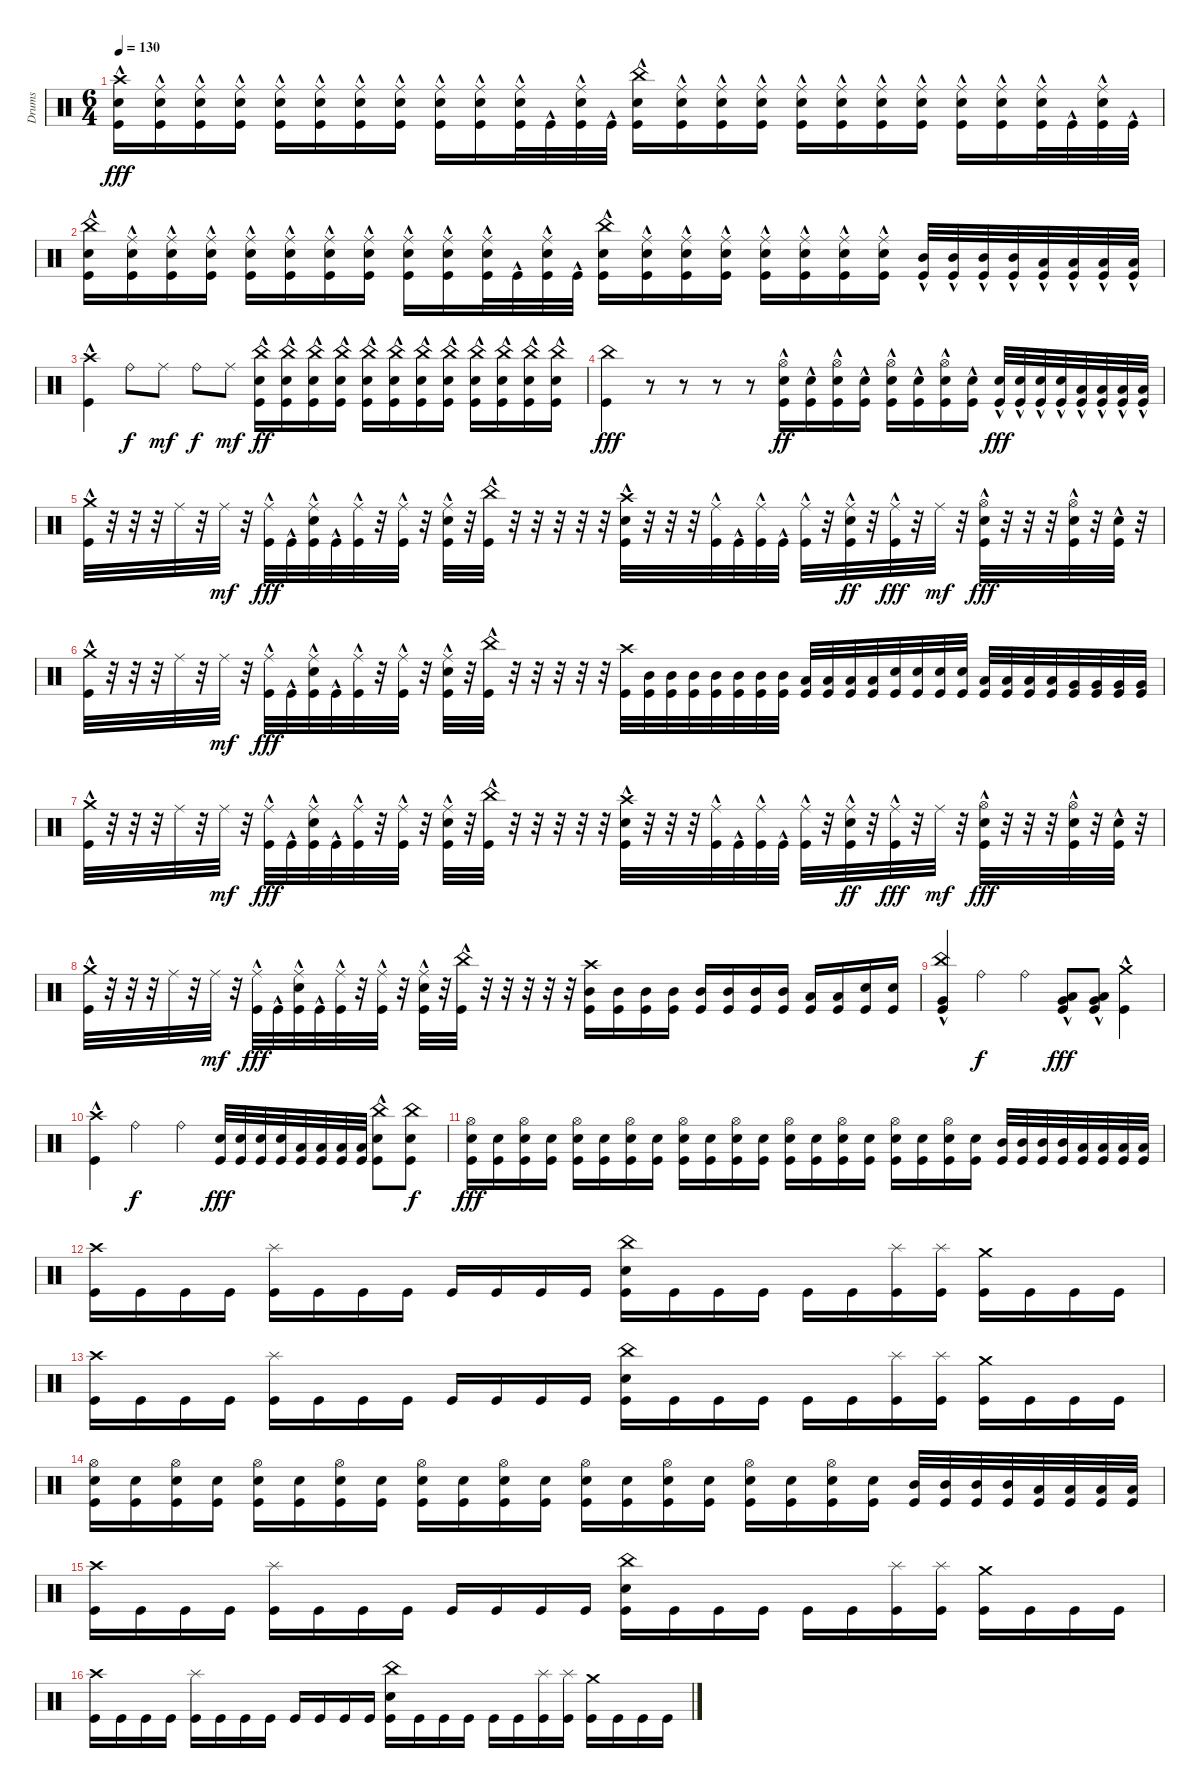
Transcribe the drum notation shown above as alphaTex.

\track ("Drums" "Drums") {instrument percussion}
\staff {score}
\articulation defaults
\ts (6 4)
\tempo 130
\clef neutral
\ks c
("Crash high (hit)" "Snare (hit) 2" "Kick (hit)"{hac}).16{dy fff} ("Ride (middle)" "Snare (hit) 2" "Kick (hit)"{hac}).16 ("Ride (middle)"{hac} "Snare (hit) 2" "Kick (hit)"{hac}).16 ("Ride (middle)" "Snare (hit) 2" "Kick (hit)"{hac}).16 ("Ride (middle)"{hac} "Snare (hit) 2" "Kick (hit)"{hac}).16 ("Ride (middle)" "Snare (hit) 2" "Kick (hit)"{hac}).16 ("Ride (middle)"{hac} "Snare (hit) 2" "Kick (hit)"{hac}).16 ("Ride (middle)" "Snare (hit) 2" "Kick (hit)"{hac}).16 ("Ride (middle)"{hac} "Snare (hit) 2" "Kick (hit)"{hac}).16 ("Ride (middle)" "Snare (hit) 2" "Kick (hit)"{hac}).16 ("Ride (middle)"{hac} "Snare (hit) 2" "Kick (hit)"{hac}).32 "Kick (hit)"{hac}.32 ("Ride (middle)" "Snare (hit) 2" "Kick (hit)"{hac}).32 "Kick (hit)"{hac}.32 ("China (hit)" "Snare (hit) 2" "Kick (hit)"{hac}).16 ("Ride (middle)" "Snare (hit) 2" "Kick (hit)"{hac}).16 ("Ride (middle)"{hac} "Snare (hit) 2" "Kick (hit)"{hac}).16 ("Ride (middle)" "Snare (hit) 2" "Kick (hit)"{hac}).16 ("Ride (middle)"{hac} "Snare (hit) 2" "Kick (hit)"{hac}).16 ("Ride (middle)" "Snare (hit) 2" "Kick (hit)"{hac}).16 ("Ride (middle)"{hac} "Snare (hit) 2" "Kick (hit)"{hac}).16 ("Ride (middle)" "Snare (hit) 2" "Kick (hit)"{hac}).16 ("Ride (middle)"{hac} "Snare (hit) 2" "Kick (hit)"{hac}).16 ("Ride (middle)" "Snare (hit) 2" "Kick (hit)"{hac}).16 ("Ride (middle)"{hac} "Snare (hit) 2" "Kick (hit)"{hac}).32 "Kick (hit)"{hac}.32 ("Ride (middle)" "Snare (hit) 2" "Kick (hit)"{hac}).32 "Kick (hit)"{hac}.32 |
("China (hit)" "Snare (hit) 2" "Kick (hit)"{hac}).16 ("Ride (middle)" "Snare (hit) 2" "Kick (hit)"{hac}).16 ("Ride (middle)"{hac} "Snare (hit) 2" "Kick (hit)"{hac}).16 ("Ride (middle)" "Snare (hit) 2" "Kick (hit)"{hac}).16 ("Ride (middle)"{hac} "Snare (hit) 2" "Kick (hit)"{hac}).16 ("Ride (middle)" "Snare (hit) 2" "Kick (hit)"{hac}).16 ("Ride (middle)"{hac} "Snare (hit) 2" "Kick (hit)"{hac}).16 ("Ride (middle)" "Snare (hit) 2" "Kick (hit)"{hac}).16 ("Ride (middle)"{hac} "Snare (hit) 2" "Kick (hit)"{hac}).16 ("Ride (middle)" "Snare (hit) 2" "Kick (hit)"{hac}).16 ("Ride (middle)"{hac} "Snare (hit) 2" "Kick (hit)"{hac}).32 "Kick (hit)"{hac}.32 ("Ride (middle)" "Snare (hit) 2" "Kick (hit)"{hac}).32 "Kick (hit)"{hac}.32 ("China (hit)" "Snare (hit) 2" "Kick (hit)"{hac}).16 ("Ride (middle)" "Snare (hit) 2" "Kick (hit)"{hac}).16 ("Ride (middle)"{hac} "Snare (hit) 2" "Kick (hit)"{hac}).16 ("Ride (middle)" "Snare (hit) 2" "Kick (hit)"{hac}).16 ("Ride (middle)"{hac} "Snare (hit) 2" "Kick (hit)"{hac}).16 ("Ride (middle)" "Snare (hit) 2" "Kick (hit)"{hac}).16 ("Ride (middle)"{hac} "Snare (hit) 2" "Kick (hit)"{hac}).16 ("Ride (middle)" "Snare (hit) 2" "Kick (hit)"{hac}).16 ("Mid Tom (hit)" "Kick (hit)"{hac}).32 ("Mid Tom (hit)" "Kick (hit)"{hac}).32 ("Mid Tom (hit)" "Kick (hit)"{hac}).32 ("Mid Tom (hit)" "Kick (hit)"{hac}).32 ("Low Tom (hit)" "Kick (hit)"{hac}).32 ("Low Tom (hit)" "Kick (hit)"{hac}).32 ("Low Tom (hit)" "Kick (hit)"{hac}).32 ("Low Tom (hit)" "Kick (hit)"{hac}).32 |
("Crash high (hit)" "Kick (hit)"{hac}).4 "Ride (bell)".8{dy f} "Ride (middle)".8{dy mf} "Ride (bell)".8{dy f} "Ride (middle)".8{dy mf} ("China (hit)" "Snare (hit) 2" "Kick (hit)"{hac}).16{dy ff} ("China (hit)" "Snare (hit) 2" "Kick (hit)"{hac}).16 ("China (hit)" "Snare (hit) 2" "Kick (hit)"{hac}).16 ("China (hit)" "Snare (hit) 2" "Kick (hit)"{hac}).16 ("China (hit)" "Snare (hit) 2" "Kick (hit)"{hac}).16 ("China (hit)" "Snare (hit) 2" "Kick (hit)"{hac}).16 ("China (hit)" "Snare (hit) 2" "Kick (hit)"{hac}).16 ("China (hit)" "Snare (hit) 2" "Kick (hit)"{hac}).16 ("China (hit)" "Snare (hit) 2" "Kick (hit)"{hac}).16 ("China (hit)" "Snare (hit) 2" "Kick (hit)"{hac}).16 ("China (hit)" "Snare (hit) 2" "Kick (hit)"{hac}).16 ("China (hit)" "Snare (hit) 2" "Kick (hit)"{hac}).16 |
("China (hit)" "Kick (hit)").4{dy fff} r.8 r.8 r.8 r.8 ("Hi-Hat (open)" "Snare (hit) 2" "Kick (hit)"{hac}).16{dy ff} ("Snare (hit) 2" "Kick (hit)"{hac}).16 ("Hi-Hat (open)" "Snare (hit) 2" "Kick (hit)"{hac}).16 ("Snare (hit) 2" "Kick (hit)"{hac}).16 ("Hi-Hat (open)" "Snare (hit) 2" "Kick (hit)"{hac}).16 ("Snare (hit) 2" "Kick (hit)"{hac}).16 ("Hi-Hat (open)" "Snare (hit) 2" "Kick (hit)"{hac}).16 ("Snare (hit) 2" "Kick (hit)"{hac}).16 ("Snare (hit) 2" "Kick (hit)"{hac}).32{dy fff} ("Snare (hit) 2" "Kick (hit)"{hac}).32 ("Snare (hit) 2" "Kick (hit)"{hac}).32 ("Snare (hit) 2" "Kick (hit)"{hac}).32 ("Low Tom (hit)" "Kick (hit)"{hac}).32 ("Low Tom (hit)" "Kick (hit)"{hac}).32 ("Low Tom (hit)" "Kick (hit)"{hac}).32 ("Low Tom (hit)" "Kick (hit)"{hac}).32 |
("Crash medium (hit)" "Kick (hit)"{hac}).32 r.32 r.32 r.32 "Ride (middle)".32 r.32 "Ride (middle)".32{dy mf} r.32 ("Ride (middle)" "Kick (hit)"{hac}).32{dy fff} "Kick (hit)"{hac}.32 ("Ride (middle)" "Snare (hit) 2" "Kick (hit)"{hac}).32 "Kick (hit)"{hac}.32 ("Ride (middle)" "Kick (hit)"{hac}).32 r.32 ("Ride (middle)" "Kick (hit)"{hac}).32 r.32 ("Ride (middle)" "Snare (hit) 2" "Kick (hit)"{hac}).32 r.32 ("China (hit)" "Kick (hit)"{hac}).32 r.32 r.32 r.32 r.32 r.32 ("Crash high (hit)" "Snare (hit) 2" "Kick (hit)"{hac}).32 r.32 r.32 r.32 ("Ride (middle)" "Kick (hit)"{hac}).32 "Kick (hit)"{hac}.32 ("Ride (middle)" "Kick (hit)"{hac}).32 "Kick (hit)"{hac}.32 ("Ride (middle)" "Kick (hit)"{hac}).32 r.32 ("Ride (middle)" "Snare (hit) 2" "Kick (hit)"{hac}).32{dy ff} r.32 ("Ride (middle)" "Kick (hit)"{hac}).32{dy fff} r.32 "Ride (middle)".32{dy mf} r.32 ("Hi-Hat (open)" "Snare (hit) 2" "Kick (hit)"{hac}).32{dy fff} r.32 r.32 r.32 ("Hi-Hat (open)" "Snare (hit) 2" "Kick (hit)"{hac}).32 r.32 ("Snare (hit) 2" "Kick (hit)"{hac}).32 r.32 |
("Crash medium (hit)" "Kick (hit)"{hac}).32 r.32 r.32 r.32 "Ride (middle)".32 r.32 "Ride (middle)".32{dy mf} r.32 ("Ride (middle)" "Kick (hit)"{hac}).32{dy fff} "Kick (hit)"{hac}.32 ("Ride (middle)" "Snare (hit) 2" "Kick (hit)"{hac}).32 "Kick (hit)"{hac}.32 ("Ride (middle)" "Kick (hit)"{hac}).32 r.32 ("Ride (middle)" "Kick (hit)"{hac}).32 r.32 ("Ride (middle)" "Snare (hit) 2" "Kick (hit)"{hac}).32 r.32 ("China (hit)" "Kick (hit)"{hac}).32 r.32 r.32 r.32 r.32 r.32 ("Crash high (hit)" "Kick (hit)").32 ("Mid Tom (hit)" "Kick (hit)").32 ("Mid Tom (hit)" "Kick (hit)").32 ("Mid Tom (hit)" "Kick (hit)").32 ("Mid Tom (hit)" "Kick (hit)").32 ("Mid Tom (hit)" "Kick (hit)").32 ("Mid Tom (hit)" "Kick (hit)").32 ("Mid Tom (hit)" "Kick (hit)").32 ("Low Tom (hit)" "Kick (hit)").32 ("Low Tom (hit)" "Kick (hit)").32 ("Low Tom (hit)" "Kick (hit)").32 ("Low Tom (hit)" "Kick (hit)").32 ("Snare (hit) 2" "Kick (hit)").32 ("Snare (hit) 2" "Kick (hit)").32 ("Snare (hit) 2" "Kick (hit)").32 ("Snare (hit) 2" "Kick (hit)").32 ("Low Tom (hit)" "Kick (hit)").32 ("Low Tom (hit)" "Kick (hit)").32 ("Low Tom (hit)" "Kick (hit)").32 ("Low Tom (hit)" "Kick (hit)").32 ("Very Low Tom (hit)" "Kick (hit)").32 ("Very Low Tom (hit)" "Kick (hit)").32 ("Very Low Tom (hit)" "Kick (hit)").32 ("Very Low Tom (hit)" "Kick (hit)").32 |
("Crash medium (hit)" "Kick (hit)"{hac}).32 r.32 r.32 r.32 "Ride (middle)".32 r.32 "Ride (middle)".32{dy mf} r.32 ("Ride (middle)" "Kick (hit)"{hac}).32{dy fff} "Kick (hit)"{hac}.32 ("Ride (middle)" "Snare (hit) 2" "Kick (hit)"{hac}).32 "Kick (hit)"{hac}.32 ("Ride (middle)" "Kick (hit)"{hac}).32 r.32 ("Ride (middle)" "Kick (hit)"{hac}).32 r.32 ("Ride (middle)" "Snare (hit) 2" "Kick (hit)"{hac}).32 r.32 ("China (hit)" "Kick (hit)"{hac}).32 r.32 r.32 r.32 r.32 r.32 ("Crash high (hit)" "Snare (hit) 2" "Kick (hit)"{hac}).32 r.32 r.32 r.32 ("Ride (middle)" "Kick (hit)"{hac}).32 "Kick (hit)"{hac}.32 ("Ride (middle)" "Kick (hit)"{hac}).32 "Kick (hit)"{hac}.32 ("Ride (middle)" "Kick (hit)"{hac}).32 r.32 ("Ride (middle)" "Snare (hit) 2" "Kick (hit)"{hac}).32{dy ff} r.32 ("Ride (middle)" "Kick (hit)"{hac}).32{dy fff} r.32 "Ride (middle)".32{dy mf} r.32 ("Hi-Hat (open)" "Snare (hit) 2" "Kick (hit)"{hac}).32{dy fff} r.32 r.32 r.32 ("Hi-Hat (open)" "Snare (hit) 2" "Kick (hit)"{hac}).32 r.32 ("Snare (hit) 2" "Kick (hit)"{hac}).32 r.32 |
("Crash medium (hit)" "Kick (hit)"{hac}).32 r.32 r.32 r.32 "Ride (middle)".32 r.32 "Ride (middle)".32{dy mf} r.32 ("Ride (middle)" "Kick (hit)"{hac}).32{dy fff} "Kick (hit)"{hac}.32 ("Ride (middle)" "Snare (hit) 2" "Kick (hit)"{hac}).32 "Kick (hit)"{hac}.32 ("Ride (middle)" "Kick (hit)"{hac}).32 r.32 ("Ride (middle)" "Kick (hit)"{hac}).32 r.32 ("Ride (middle)" "Snare (hit) 2" "Kick (hit)"{hac}).32 r.32 ("China (hit)" "Kick (hit)"{hac}).32 r.32 r.32 r.32 r.32 r.32 ("Crash high (hit)" "Mid Tom (hit)" "Kick (hit)").16 ("Mid Tom (hit)" "Kick (hit)").16 ("Mid Tom (hit)" "Kick (hit)").16 ("Mid Tom (hit)" "Kick (hit)").16 ("Mid Tom (hit)" "Kick (hit)").16 ("Mid Tom (hit)" "Kick (hit)").16 ("Mid Tom (hit)" "Kick (hit)").16 ("Mid Tom (hit)" "Kick (hit)").16 ("Low Tom (hit)" "Kick (hit)").16 ("Low Tom (hit)" "Kick (hit)").16 ("Snare (hit) 2" "Kick (hit)").16 ("Snare (hit) 2" "Kick (hit)").16 |
("China (hit)" "Very Low Tom (hit)" "Kick (hit)"{hac}).4 "Ride (bell)".2{dy f} "Ride (bell)".4 ("Very Low Tom (hit)" "Low Tom (hit)" "Kick (hit)"{hac}).8{dy fff} ("Very Low Tom (hit)" "Low Tom (hit)" "Kick (hit)"{hac}).8 ("Crash medium (hit)" "Kick (hit)"{hac}).4 |
("Crash high (hit)" "Kick (hit)"{hac}).4 "Ride (bell)".2{dy f} "Ride (bell)".4 ("Snare (hit) 2" "Kick (hit)").32{dy fff} ("Snare (hit) 2" "Kick (hit)").32 ("Snare (hit) 2" "Kick (hit)").32 ("Snare (hit) 2" "Kick (hit)").32 ("Low Tom (hit)" "Kick (hit)").32 ("Low Tom (hit)" "Kick (hit)").32 ("Low Tom (hit)" "Kick (hit)").32 ("Low Tom (hit)" "Kick (hit)").32 ("China (hit)" "Snare (hit) 2"{hac} "Kick (hit)"{hac}).8 ("China (hit)" "Snare (hit) 2" "Kick (hit)").8{dy f} |
("Hi-Hat (open)" "Snare (hit) 2" "Kick (hit)").16{dy fff} ("Snare (hit) 2" "Kick (hit)").16 ("Hi-Hat (open)" "Snare (hit) 2" "Kick (hit)").16 ("Snare (hit) 2" "Kick (hit)").16 ("Hi-Hat (open)" "Snare (hit) 2" "Kick (hit)").16 ("Snare (hit) 2" "Kick (hit)").16 ("Hi-Hat (open)" "Snare (hit) 2" "Kick (hit)").16 ("Snare (hit) 2" "Kick (hit)").16 ("Hi-Hat (open)" "Snare (hit) 2" "Kick (hit)").16 ("Snare (hit) 2" "Kick (hit)").16 ("Hi-Hat (open)" "Snare (hit) 2" "Kick (hit)").16 ("Snare (hit) 2" "Kick (hit)").16 ("Hi-Hat (open)" "Snare (hit) 2" "Kick (hit)").16 ("Snare (hit) 2" "Kick (hit)").16 ("Hi-Hat (open)" "Snare (hit) 2" "Kick (hit)").16 ("Snare (hit) 2" "Kick (hit)").16 ("Hi-Hat (open)" "Snare (hit) 2" "Kick (hit)").16 ("Snare (hit) 2" "Kick (hit)").16 ("Hi-Hat (open)" "Snare (hit) 2" "Kick (hit)").16 ("Snare (hit) 2" "Kick (hit)").16 ("Mid Tom (hit)" "Kick (hit)").32 ("Mid Tom (hit)" "Kick (hit)").32 ("Mid Tom (hit)" "Kick (hit)").32 ("Mid Tom (hit)" "Kick (hit)").32 ("Low Tom (hit)" "Kick (hit)").32 ("Low Tom (hit)" "Kick (hit)").32 ("Low Tom (hit)" "Kick (hit)").32 ("Low Tom (hit)" "Kick (hit)").32 |
("Crash high (hit)" "Kick (hit)").16 "Kick (hit)".16 "Kick (hit)".16 "Kick (hit)".16 ("Splash (hit)" "Kick (hit)").16 "Kick (hit)".16 "Kick (hit)".16 "Kick (hit)".16 "Kick (hit)".16 "Kick (hit)".16 "Kick (hit)".16 "Kick (hit)".16 ("China (hit)" "Snare (hit) 2" "Kick (hit)").16 "Kick (hit)".16 "Kick (hit)".16 "Kick (hit)".16 "Kick (hit)".16 "Kick (hit)".16 ("Splash (hit)" "Kick (hit)").16 ("Splash (hit)" "Kick (hit)").16 ("Crash medium (hit)" "Kick (hit)").16 "Kick (hit)".16 "Kick (hit)".16 "Kick (hit)".16 |
("Crash high (hit)" "Kick (hit)").16 "Kick (hit)".16 "Kick (hit)".16 "Kick (hit)".16 ("Splash (hit)" "Kick (hit)").16 "Kick (hit)".16 "Kick (hit)".16 "Kick (hit)".16 "Kick (hit)".16 "Kick (hit)".16 "Kick (hit)".16 "Kick (hit)".16 ("China (hit)" "Snare (hit) 2" "Kick (hit)").16 "Kick (hit)".16 "Kick (hit)".16 "Kick (hit)".16 "Kick (hit)".16 "Kick (hit)".16 ("Splash (hit)" "Kick (hit)").16 ("Splash (hit)" "Kick (hit)").16 ("Crash medium (hit)" "Kick (hit)").16 "Kick (hit)".16 "Kick (hit)".16 "Kick (hit)".16 |
("Hi-Hat (open)" "Snare (hit) 2" "Kick (hit)").16 ("Snare (hit) 2" "Kick (hit)").16 ("Hi-Hat (open)" "Snare (hit) 2" "Kick (hit)").16 ("Snare (hit) 2" "Kick (hit)").16 ("Hi-Hat (open)" "Snare (hit) 2" "Kick (hit)").16 ("Snare (hit) 2" "Kick (hit)").16 ("Hi-Hat (open)" "Snare (hit) 2" "Kick (hit)").16 ("Snare (hit) 2" "Kick (hit)").16 ("Hi-Hat (open)" "Snare (hit) 2" "Kick (hit)").16 ("Snare (hit) 2" "Kick (hit)").16 ("Hi-Hat (open)" "Snare (hit) 2" "Kick (hit)").16 ("Snare (hit) 2" "Kick (hit)").16 ("Hi-Hat (open)" "Snare (hit) 2" "Kick (hit)").16 ("Snare (hit) 2" "Kick (hit)").16 ("Hi-Hat (open)" "Snare (hit) 2" "Kick (hit)").16 ("Snare (hit) 2" "Kick (hit)").16 ("Hi-Hat (open)" "Snare (hit) 2" "Kick (hit)").16 ("Snare (hit) 2" "Kick (hit)").16 ("Hi-Hat (open)" "Snare (hit) 2" "Kick (hit)").16 ("Snare (hit) 2" "Kick (hit)").16 ("Mid Tom (hit)" "Kick (hit)").32 ("Mid Tom (hit)" "Kick (hit)").32 ("Mid Tom (hit)" "Kick (hit)").32 ("Mid Tom (hit)" "Kick (hit)").32 ("Low Tom (hit)" "Kick (hit)").32 ("Low Tom (hit)" "Kick (hit)").32 ("Low Tom (hit)" "Kick (hit)").32 ("Low Tom (hit)" "Kick (hit)").32 |
("Crash high (hit)" "Kick (hit)").16 "Kick (hit)".16 "Kick (hit)".16 "Kick (hit)".16 ("Splash (hit)" "Kick (hit)").16 "Kick (hit)".16 "Kick (hit)".16 "Kick (hit)".16 "Kick (hit)".16 "Kick (hit)".16 "Kick (hit)".16 "Kick (hit)".16 ("China (hit)" "Snare (hit) 2" "Kick (hit)").16 "Kick (hit)".16 "Kick (hit)".16 "Kick (hit)".16 "Kick (hit)".16 "Kick (hit)".16 ("Splash (hit)" "Kick (hit)").16 ("Splash (hit)" "Kick (hit)").16 ("Crash medium (hit)" "Kick (hit)").16 "Kick (hit)".16 "Kick (hit)".16 "Kick (hit)".16 |
("Crash high (hit)" "Kick (hit)").16 "Kick (hit)".16 "Kick (hit)".16 "Kick (hit)".16 ("Splash (hit)" "Kick (hit)").16 "Kick (hit)".16 "Kick (hit)".16 "Kick (hit)".16 "Kick (hit)".16 "Kick (hit)".16 "Kick (hit)".16 "Kick (hit)".16 ("China (hit)" "Snare (hit) 2" "Kick (hit)").16 "Kick (hit)".16 "Kick (hit)".16 "Kick (hit)".16 "Kick (hit)".16 "Kick (hit)".16 ("Splash (hit)" "Kick (hit)").16 ("Splash (hit)" "Kick (hit)").16 ("Crash medium (hit)" "Kick (hit)").16 "Kick (hit)".16 "Kick (hit)".16 "Kick (hit)".16
